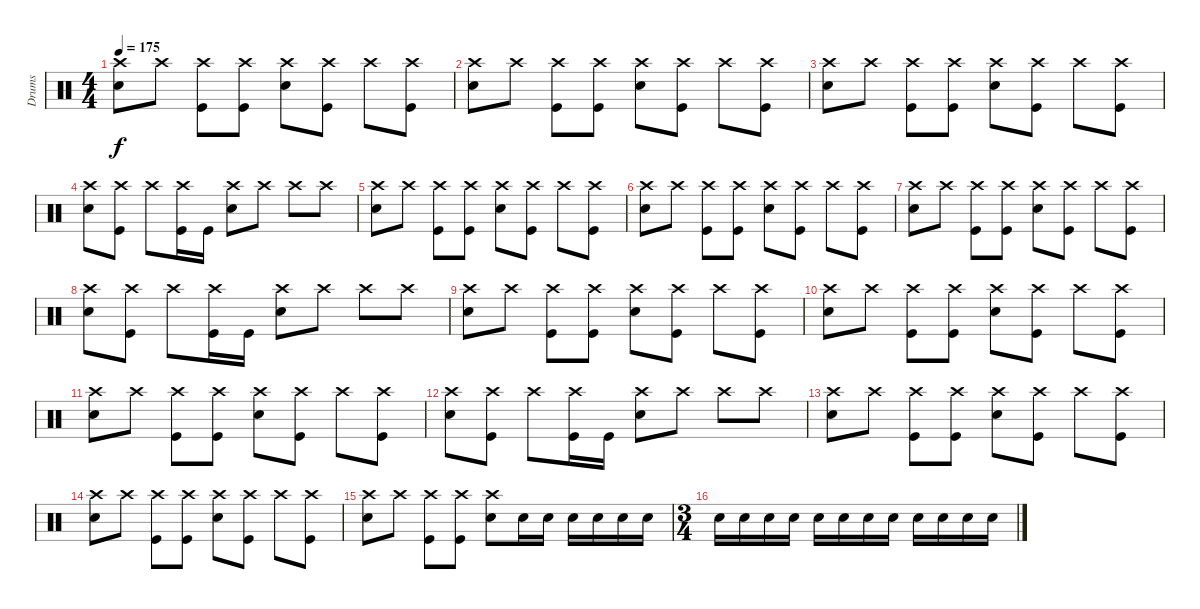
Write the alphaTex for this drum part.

\track ("Drums" "Drums") {instrument percussion}
\staff {score}
\articulation defaults
\ts (4 4)
\tempo 175
\clef neutral
\ks c
("Crash high (hit)" "Snare (hit) 2").8{dy f} "Crash high (hit)".8 ("Crash high (hit)" "Kick (hit)").8 ("Crash high (hit)" "Kick (hit)").8 ("Crash high (hit)" "Snare (hit) 2").8 ("Crash high (hit)" "Kick (hit)").8 "Crash high (hit)".8 ("Crash high (hit)" "Kick (hit)").8 |
("Crash high (hit)" "Snare (hit) 2").8 "Crash high (hit)".8 ("Crash high (hit)" "Kick (hit)").8 ("Crash high (hit)" "Kick (hit)").8 ("Crash high (hit)" "Snare (hit) 2").8 ("Crash high (hit)" "Kick (hit)").8 "Crash high (hit)".8 ("Crash high (hit)" "Kick (hit)").8 |
("Crash high (hit)" "Snare (hit) 2").8 "Crash high (hit)".8 ("Crash high (hit)" "Kick (hit)").8 ("Crash high (hit)" "Kick (hit)").8 ("Crash high (hit)" "Snare (hit) 2").8 ("Crash high (hit)" "Kick (hit)").8 "Crash high (hit)".8 ("Crash high (hit)" "Kick (hit)").8 |
("Crash high (hit)" "Snare (hit) 2").8 ("Crash high (hit)" "Kick (hit)").8 "Crash high (hit)".8 ("Crash high (hit)" "Kick (hit)").16 "Kick (hit)".16 ("Crash high (hit)" "Snare (hit) 2").8 "Crash high (hit)".8 "Crash high (hit)".8 "Crash high (hit)".8 |
("Crash high (hit)" "Snare (hit) 2").8 "Crash high (hit)".8 ("Crash high (hit)" "Kick (hit)").8 ("Crash high (hit)" "Kick (hit)").8 ("Crash high (hit)" "Snare (hit) 2").8 ("Crash high (hit)" "Kick (hit)").8 "Crash high (hit)".8 ("Crash high (hit)" "Kick (hit)").8 |
("Crash high (hit)" "Snare (hit) 2").8 "Crash high (hit)".8 ("Crash high (hit)" "Kick (hit)").8 ("Crash high (hit)" "Kick (hit)").8 ("Crash high (hit)" "Snare (hit) 2").8 ("Crash high (hit)" "Kick (hit)").8 "Crash high (hit)".8 ("Crash high (hit)" "Kick (hit)").8 |
("Crash high (hit)" "Snare (hit) 2").8 "Crash high (hit)".8 ("Crash high (hit)" "Kick (hit)").8 ("Crash high (hit)" "Kick (hit)").8 ("Crash high (hit)" "Snare (hit) 2").8 ("Crash high (hit)" "Kick (hit)").8 "Crash high (hit)".8 ("Crash high (hit)" "Kick (hit)").8 |
("Crash high (hit)" "Snare (hit) 2").8 ("Crash high (hit)" "Kick (hit)").8 "Crash high (hit)".8 ("Crash high (hit)" "Kick (hit)").16 "Kick (hit)".16 ("Crash high (hit)" "Snare (hit) 2").8 "Crash high (hit)".8 "Crash high (hit)".8 "Crash high (hit)".8 |
("Crash high (hit)" "Snare (hit) 2").8 "Crash high (hit)".8 ("Crash high (hit)" "Kick (hit)").8 ("Crash high (hit)" "Kick (hit)").8 ("Crash high (hit)" "Snare (hit) 2").8 ("Crash high (hit)" "Kick (hit)").8 "Crash high (hit)".8 ("Crash high (hit)" "Kick (hit)").8 |
("Crash high (hit)" "Snare (hit) 2").8 "Crash high (hit)".8 ("Crash high (hit)" "Kick (hit)").8 ("Crash high (hit)" "Kick (hit)").8 ("Crash high (hit)" "Snare (hit) 2").8 ("Crash high (hit)" "Kick (hit)").8 "Crash high (hit)".8 ("Crash high (hit)" "Kick (hit)").8 |
("Crash high (hit)" "Snare (hit) 2").8 "Crash high (hit)".8 ("Crash high (hit)" "Kick (hit)").8 ("Crash high (hit)" "Kick (hit)").8 ("Crash high (hit)" "Snare (hit) 2").8 ("Crash high (hit)" "Kick (hit)").8 "Crash high (hit)".8 ("Crash high (hit)" "Kick (hit)").8 |
("Crash high (hit)" "Snare (hit) 2").8 ("Crash high (hit)" "Kick (hit)").8 "Crash high (hit)".8 ("Crash high (hit)" "Kick (hit)").16 "Kick (hit)".16 ("Crash high (hit)" "Snare (hit) 2").8 "Crash high (hit)".8 "Crash high (hit)".8 "Crash high (hit)".8 |
("Crash high (hit)" "Snare (hit) 2").8 "Crash high (hit)".8 ("Crash high (hit)" "Kick (hit)").8 ("Crash high (hit)" "Kick (hit)").8 ("Crash high (hit)" "Snare (hit) 2").8 ("Crash high (hit)" "Kick (hit)").8 "Crash high (hit)".8 ("Crash high (hit)" "Kick (hit)").8 |
("Crash high (hit)" "Snare (hit) 2").8 "Crash high (hit)".8 ("Crash high (hit)" "Kick (hit)").8 ("Crash high (hit)" "Kick (hit)").8 ("Crash high (hit)" "Snare (hit) 2").8 ("Crash high (hit)" "Kick (hit)").8 "Crash high (hit)".8 ("Crash high (hit)" "Kick (hit)").8 |
("Crash high (hit)" "Snare (hit) 2").8 "Crash high (hit)".8 ("Crash high (hit)" "Kick (hit)").8 ("Crash high (hit)" "Kick (hit)").8 ("Crash high (hit)" "Snare (hit) 2").8 "Snare (hit) 2".16 "Snare (hit) 2".16 "Snare (hit) 2".16 "Snare (hit) 2".16 "Snare (hit) 2".16 "Snare (hit) 2".16 |
\ts (3 4)
"Snare (hit) 2".16 "Snare (hit) 2".16 "Snare (hit) 2".16 "Snare (hit) 2".16 "Snare (hit) 2".16 "Snare (hit) 2".16 "Snare (hit) 2".16 "Snare (hit) 2".16 "Snare (hit) 2".16 "Snare (hit) 2".16 "Snare (hit) 2".16 "Snare (hit) 2".16
